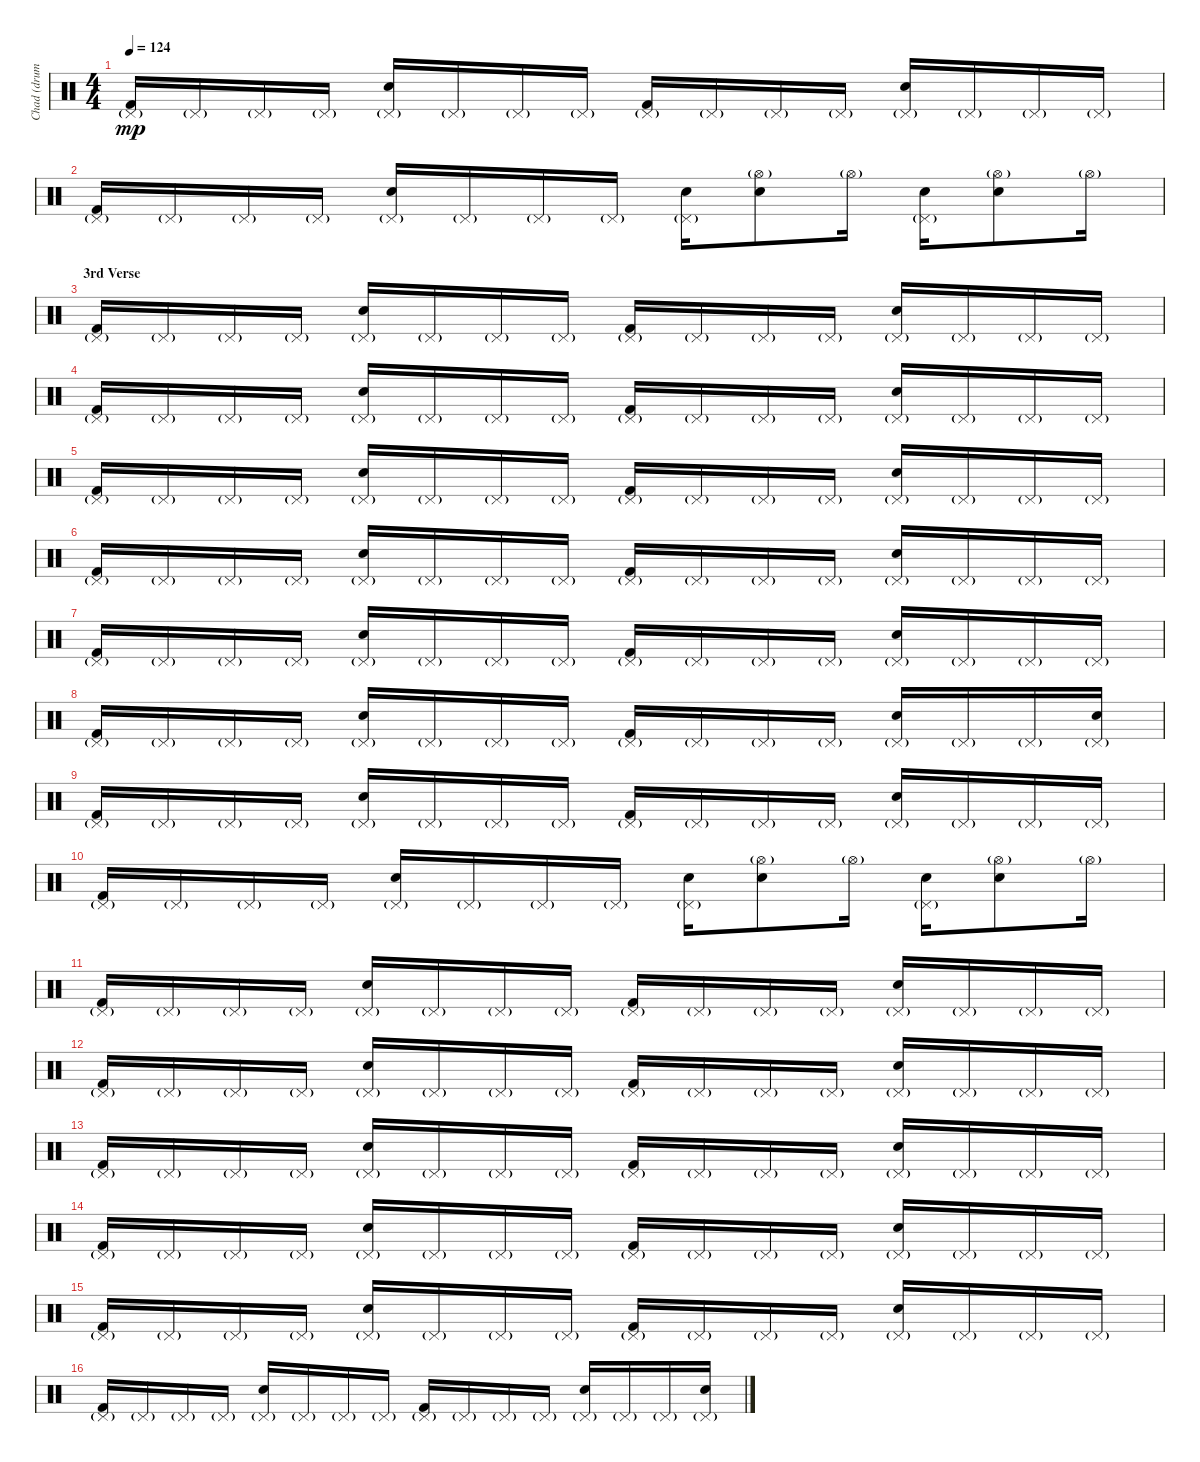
\track ("Chad (drums)" "Chad (drum") {instrument percussion}
\staff {score}
\articulation defaults
\ts (4 4)
\tempo 124
\clef neutral
\ks c
("Kick (hit) 2" "Pedal Hi-Hat (hit)"{g}).16{dy mp} "Pedal Hi-Hat (hit)"{g}.16 "Pedal Hi-Hat (hit)"{g}.16 "Pedal Hi-Hat (hit)"{g}.16 ("Electric Snare (hit)" "Pedal Hi-Hat (hit)"{g}).16 "Pedal Hi-Hat (hit)"{g}.16 "Pedal Hi-Hat (hit)"{g}.16 "Pedal Hi-Hat (hit)"{g}.16 ("Kick (hit) 2" "Pedal Hi-Hat (hit)"{g}).16 "Pedal Hi-Hat (hit)"{g}.16 "Pedal Hi-Hat (hit)"{g}.16 "Pedal Hi-Hat (hit)"{g}.16 ("Electric Snare (hit)" "Pedal Hi-Hat (hit)"{g}).16 "Pedal Hi-Hat (hit)"{g}.16 "Pedal Hi-Hat (hit)"{g}.16 "Pedal Hi-Hat (hit)"{g}.16 |
("Kick (hit) 2" "Pedal Hi-Hat (hit)"{g}).16 "Pedal Hi-Hat (hit)"{g}.16 "Pedal Hi-Hat (hit)"{g}.16 "Pedal Hi-Hat (hit)"{g}.16 ("Electric Snare (hit)" "Pedal Hi-Hat (hit)"{g}).16 "Pedal Hi-Hat (hit)"{g}.16 "Pedal Hi-Hat (hit)"{g}.16 "Pedal Hi-Hat (hit)"{g}.16 ("Electric Snare (hit)" "Pedal Hi-Hat (hit)"{g}).16 ("Electric Snare (hit)" "Hi-Hat (open)"{g}).8 "Hi-Hat (open)"{g}.16 ("Electric Snare (hit)" "Pedal Hi-Hat (hit)"{g}).16 ("Electric Snare (hit)" "Hi-Hat (open)"{g}).8 "Hi-Hat (open)"{g}.16 |
\section ("" "3rd Verse")
("Kick (hit) 2" "Pedal Hi-Hat (hit)"{g}).16 "Pedal Hi-Hat (hit)"{g}.16 "Pedal Hi-Hat (hit)"{g}.16 "Pedal Hi-Hat (hit)"{g}.16 ("Electric Snare (hit)" "Pedal Hi-Hat (hit)"{g}).16 "Pedal Hi-Hat (hit)"{g}.16 "Pedal Hi-Hat (hit)"{g}.16 "Pedal Hi-Hat (hit)"{g}.16 ("Kick (hit) 2" "Pedal Hi-Hat (hit)"{g}).16 "Pedal Hi-Hat (hit)"{g}.16 "Pedal Hi-Hat (hit)"{g}.16 "Pedal Hi-Hat (hit)"{g}.16 ("Electric Snare (hit)" "Pedal Hi-Hat (hit)"{g}).16 "Pedal Hi-Hat (hit)"{g}.16 "Pedal Hi-Hat (hit)"{g}.16 "Pedal Hi-Hat (hit)"{g}.16 |
("Kick (hit) 2" "Pedal Hi-Hat (hit)"{g}).16 "Pedal Hi-Hat (hit)"{g}.16 "Pedal Hi-Hat (hit)"{g}.16 "Pedal Hi-Hat (hit)"{g}.16 ("Electric Snare (hit)" "Pedal Hi-Hat (hit)"{g}).16 "Pedal Hi-Hat (hit)"{g}.16 "Pedal Hi-Hat (hit)"{g}.16 "Pedal Hi-Hat (hit)"{g}.16 ("Kick (hit) 2" "Pedal Hi-Hat (hit)"{g}).16 "Pedal Hi-Hat (hit)"{g}.16 "Pedal Hi-Hat (hit)"{g}.16 "Pedal Hi-Hat (hit)"{g}.16 ("Electric Snare (hit)" "Pedal Hi-Hat (hit)"{g}).16 "Pedal Hi-Hat (hit)"{g}.16 "Pedal Hi-Hat (hit)"{g}.16 "Pedal Hi-Hat (hit)"{g}.16 |
("Kick (hit) 2" "Pedal Hi-Hat (hit)"{g}).16 "Pedal Hi-Hat (hit)"{g}.16 "Pedal Hi-Hat (hit)"{g}.16 "Pedal Hi-Hat (hit)"{g}.16 ("Electric Snare (hit)" "Pedal Hi-Hat (hit)"{g}).16 "Pedal Hi-Hat (hit)"{g}.16 "Pedal Hi-Hat (hit)"{g}.16 "Pedal Hi-Hat (hit)"{g}.16 ("Kick (hit) 2" "Pedal Hi-Hat (hit)"{g}).16 "Pedal Hi-Hat (hit)"{g}.16 "Pedal Hi-Hat (hit)"{g}.16 "Pedal Hi-Hat (hit)"{g}.16 ("Electric Snare (hit)" "Pedal Hi-Hat (hit)"{g}).16 "Pedal Hi-Hat (hit)"{g}.16 "Pedal Hi-Hat (hit)"{g}.16 "Pedal Hi-Hat (hit)"{g}.16 |
("Kick (hit) 2" "Pedal Hi-Hat (hit)"{g}).16 "Pedal Hi-Hat (hit)"{g}.16 "Pedal Hi-Hat (hit)"{g}.16 "Pedal Hi-Hat (hit)"{g}.16 ("Electric Snare (hit)" "Pedal Hi-Hat (hit)"{g}).16 "Pedal Hi-Hat (hit)"{g}.16 "Pedal Hi-Hat (hit)"{g}.16 "Pedal Hi-Hat (hit)"{g}.16 ("Kick (hit) 2" "Pedal Hi-Hat (hit)"{g}).16 "Pedal Hi-Hat (hit)"{g}.16 "Pedal Hi-Hat (hit)"{g}.16 "Pedal Hi-Hat (hit)"{g}.16 ("Electric Snare (hit)" "Pedal Hi-Hat (hit)"{g}).16 "Pedal Hi-Hat (hit)"{g}.16 "Pedal Hi-Hat (hit)"{g}.16 "Pedal Hi-Hat (hit)"{g}.16 |
("Kick (hit) 2" "Pedal Hi-Hat (hit)"{g}).16 "Pedal Hi-Hat (hit)"{g}.16 "Pedal Hi-Hat (hit)"{g}.16 "Pedal Hi-Hat (hit)"{g}.16 ("Electric Snare (hit)" "Pedal Hi-Hat (hit)"{g}).16 "Pedal Hi-Hat (hit)"{g}.16 "Pedal Hi-Hat (hit)"{g}.16 "Pedal Hi-Hat (hit)"{g}.16 ("Kick (hit) 2" "Pedal Hi-Hat (hit)"{g}).16 "Pedal Hi-Hat (hit)"{g}.16 "Pedal Hi-Hat (hit)"{g}.16 "Pedal Hi-Hat (hit)"{g}.16 ("Electric Snare (hit)" "Pedal Hi-Hat (hit)"{g}).16 "Pedal Hi-Hat (hit)"{g}.16 "Pedal Hi-Hat (hit)"{g}.16 "Pedal Hi-Hat (hit)"{g}.16 |
("Kick (hit) 2" "Pedal Hi-Hat (hit)"{g}).16 "Pedal Hi-Hat (hit)"{g}.16 "Pedal Hi-Hat (hit)"{g}.16 "Pedal Hi-Hat (hit)"{g}.16 ("Electric Snare (hit)" "Pedal Hi-Hat (hit)"{g}).16 "Pedal Hi-Hat (hit)"{g}.16 "Pedal Hi-Hat (hit)"{g}.16 "Pedal Hi-Hat (hit)"{g}.16 ("Kick (hit) 2" "Pedal Hi-Hat (hit)"{g}).16 "Pedal Hi-Hat (hit)"{g}.16 "Pedal Hi-Hat (hit)"{g}.16 "Pedal Hi-Hat (hit)"{g}.16 ("Electric Snare (hit)" "Pedal Hi-Hat (hit)"{g}).16 "Pedal Hi-Hat (hit)"{g}.16 "Pedal Hi-Hat (hit)"{g}.16 ("Electric Snare (hit)" "Pedal Hi-Hat (hit)"{g}).16 |
("Kick (hit) 2" "Pedal Hi-Hat (hit)"{g}).16 "Pedal Hi-Hat (hit)"{g}.16 "Pedal Hi-Hat (hit)"{g}.16 "Pedal Hi-Hat (hit)"{g}.16 ("Electric Snare (hit)" "Pedal Hi-Hat (hit)"{g}).16 "Pedal Hi-Hat (hit)"{g}.16 "Pedal Hi-Hat (hit)"{g}.16 "Pedal Hi-Hat (hit)"{g}.16 ("Kick (hit) 2" "Pedal Hi-Hat (hit)"{g}).16 "Pedal Hi-Hat (hit)"{g}.16 "Pedal Hi-Hat (hit)"{g}.16 "Pedal Hi-Hat (hit)"{g}.16 ("Electric Snare (hit)" "Pedal Hi-Hat (hit)"{g}).16 "Pedal Hi-Hat (hit)"{g}.16 "Pedal Hi-Hat (hit)"{g}.16 "Pedal Hi-Hat (hit)"{g}.16 |
("Kick (hit) 2" "Pedal Hi-Hat (hit)"{g}).16 "Pedal Hi-Hat (hit)"{g}.16 "Pedal Hi-Hat (hit)"{g}.16 "Pedal Hi-Hat (hit)"{g}.16 ("Electric Snare (hit)" "Pedal Hi-Hat (hit)"{g}).16 "Pedal Hi-Hat (hit)"{g}.16 "Pedal Hi-Hat (hit)"{g}.16 "Pedal Hi-Hat (hit)"{g}.16 ("Electric Snare (hit)" "Pedal Hi-Hat (hit)"{g}).16 ("Electric Snare (hit)" "Hi-Hat (open)"{g}).8 "Hi-Hat (open)"{g}.16 ("Electric Snare (hit)" "Pedal Hi-Hat (hit)"{g}).16 ("Electric Snare (hit)" "Hi-Hat (open)"{g}).8 "Hi-Hat (open)"{g}.16 |
("Kick (hit) 2" "Pedal Hi-Hat (hit)"{g}).16 "Pedal Hi-Hat (hit)"{g}.16 "Pedal Hi-Hat (hit)"{g}.16 "Pedal Hi-Hat (hit)"{g}.16 ("Electric Snare (hit)" "Pedal Hi-Hat (hit)"{g}).16 "Pedal Hi-Hat (hit)"{g}.16 "Pedal Hi-Hat (hit)"{g}.16 "Pedal Hi-Hat (hit)"{g}.16 ("Kick (hit) 2" "Pedal Hi-Hat (hit)"{g}).16 "Pedal Hi-Hat (hit)"{g}.16 "Pedal Hi-Hat (hit)"{g}.16 "Pedal Hi-Hat (hit)"{g}.16 ("Electric Snare (hit)" "Pedal Hi-Hat (hit)"{g}).16 "Pedal Hi-Hat (hit)"{g}.16 "Pedal Hi-Hat (hit)"{g}.16 "Pedal Hi-Hat (hit)"{g}.16 |
("Kick (hit) 2" "Pedal Hi-Hat (hit)"{g}).16 "Pedal Hi-Hat (hit)"{g}.16 "Pedal Hi-Hat (hit)"{g}.16 "Pedal Hi-Hat (hit)"{g}.16 ("Electric Snare (hit)" "Pedal Hi-Hat (hit)"{g}).16 "Pedal Hi-Hat (hit)"{g}.16 "Pedal Hi-Hat (hit)"{g}.16 "Pedal Hi-Hat (hit)"{g}.16 ("Kick (hit) 2" "Pedal Hi-Hat (hit)"{g}).16 "Pedal Hi-Hat (hit)"{g}.16 "Pedal Hi-Hat (hit)"{g}.16 "Pedal Hi-Hat (hit)"{g}.16 ("Electric Snare (hit)" "Pedal Hi-Hat (hit)"{g}).16 "Pedal Hi-Hat (hit)"{g}.16 "Pedal Hi-Hat (hit)"{g}.16 "Pedal Hi-Hat (hit)"{g}.16 |
("Kick (hit) 2" "Pedal Hi-Hat (hit)"{g}).16 "Pedal Hi-Hat (hit)"{g}.16 "Pedal Hi-Hat (hit)"{g}.16 "Pedal Hi-Hat (hit)"{g}.16 ("Electric Snare (hit)" "Pedal Hi-Hat (hit)"{g}).16 "Pedal Hi-Hat (hit)"{g}.16 "Pedal Hi-Hat (hit)"{g}.16 "Pedal Hi-Hat (hit)"{g}.16 ("Kick (hit) 2" "Pedal Hi-Hat (hit)"{g}).16 "Pedal Hi-Hat (hit)"{g}.16 "Pedal Hi-Hat (hit)"{g}.16 "Pedal Hi-Hat (hit)"{g}.16 ("Electric Snare (hit)" "Pedal Hi-Hat (hit)"{g}).16 "Pedal Hi-Hat (hit)"{g}.16 "Pedal Hi-Hat (hit)"{g}.16 "Pedal Hi-Hat (hit)"{g}.16 |
("Kick (hit) 2" "Pedal Hi-Hat (hit)"{g}).16 "Pedal Hi-Hat (hit)"{g}.16 "Pedal Hi-Hat (hit)"{g}.16 "Pedal Hi-Hat (hit)"{g}.16 ("Electric Snare (hit)" "Pedal Hi-Hat (hit)"{g}).16 "Pedal Hi-Hat (hit)"{g}.16 "Pedal Hi-Hat (hit)"{g}.16 "Pedal Hi-Hat (hit)"{g}.16 ("Kick (hit) 2" "Pedal Hi-Hat (hit)"{g}).16 "Pedal Hi-Hat (hit)"{g}.16 "Pedal Hi-Hat (hit)"{g}.16 "Pedal Hi-Hat (hit)"{g}.16 ("Electric Snare (hit)" "Pedal Hi-Hat (hit)"{g}).16 "Pedal Hi-Hat (hit)"{g}.16 "Pedal Hi-Hat (hit)"{g}.16 "Pedal Hi-Hat (hit)"{g}.16 |
("Kick (hit) 2" "Pedal Hi-Hat (hit)"{g}).16 "Pedal Hi-Hat (hit)"{g}.16 "Pedal Hi-Hat (hit)"{g}.16 "Pedal Hi-Hat (hit)"{g}.16 ("Electric Snare (hit)" "Pedal Hi-Hat (hit)"{g}).16 "Pedal Hi-Hat (hit)"{g}.16 "Pedal Hi-Hat (hit)"{g}.16 "Pedal Hi-Hat (hit)"{g}.16 ("Kick (hit) 2" "Pedal Hi-Hat (hit)"{g}).16 "Pedal Hi-Hat (hit)"{g}.16 "Pedal Hi-Hat (hit)"{g}.16 "Pedal Hi-Hat (hit)"{g}.16 ("Electric Snare (hit)" "Pedal Hi-Hat (hit)"{g}).16 "Pedal Hi-Hat (hit)"{g}.16 "Pedal Hi-Hat (hit)"{g}.16 "Pedal Hi-Hat (hit)"{g}.16 |
("Kick (hit) 2" "Pedal Hi-Hat (hit)"{g}).16 "Pedal Hi-Hat (hit)"{g}.16 "Pedal Hi-Hat (hit)"{g}.16 "Pedal Hi-Hat (hit)"{g}.16 ("Electric Snare (hit)" "Pedal Hi-Hat (hit)"{g}).16 "Pedal Hi-Hat (hit)"{g}.16 "Pedal Hi-Hat (hit)"{g}.16 "Pedal Hi-Hat (hit)"{g}.16 ("Kick (hit) 2" "Pedal Hi-Hat (hit)"{g}).16 "Pedal Hi-Hat (hit)"{g}.16 "Pedal Hi-Hat (hit)"{g}.16 "Pedal Hi-Hat (hit)"{g}.16 ("Electric Snare (hit)" "Pedal Hi-Hat (hit)"{g}).16 "Pedal Hi-Hat (hit)"{g}.16 "Pedal Hi-Hat (hit)"{g}.16 ("Electric Snare (hit)" "Pedal Hi-Hat (hit)"{g}).16
